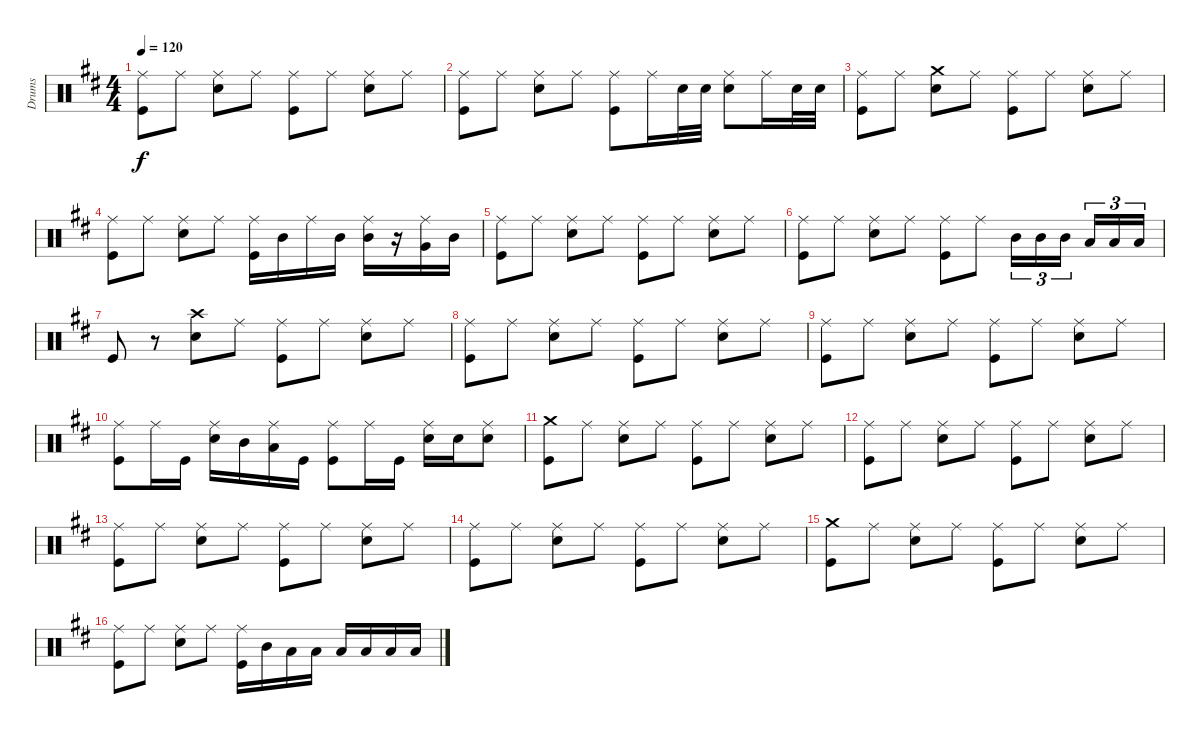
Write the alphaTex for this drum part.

\track ("Drums" "Drums") {instrument percussion}
\staff {score}
\articulation defaults
\ts (4 4)
\tempo 120
\clef neutral
\ks d
("Ride (middle)" "Kick (hit)").8{dy f} "Ride (middle)".8 ("Ride (middle)" "Snare (hit) 2").8 "Ride (middle)".8 ("Ride (middle)" "Kick (hit)").8 "Ride (middle)".8 ("Ride (middle)" "Snare (hit) 2").8 "Ride (middle)".8 |
("Ride (middle)" "Kick (hit)").8 "Ride (middle)".8 ("Ride (middle)" "Snare (hit) 2").8 "Ride (middle)".8 ("Ride (middle)" "Kick (hit)").8 "Ride (middle)".16 "Snare (hit) 2".32 "Snare (hit) 2".32 ("Ride (middle)" "Snare (hit) 2").8 "Ride (middle)".16 "Snare (hit) 2".32 "Snare (hit) 2".32 |
("Ride (middle)" "Kick (hit)").8 "Ride (middle)".8 ("Crash medium (hit)" "Snare (hit) 2").8 "Ride (middle)".8 ("Ride (middle)" "Kick (hit)").8 "Ride (middle)".8 ("Ride (middle)" "Snare (hit) 2").8 "Ride (middle)".8 |
("Ride (middle)" "Kick (hit)").8 "Ride (middle)".8 ("Ride (middle)" "Snare (hit) 2").8 "Ride (middle)".8 ("Ride (middle)" "Kick (hit)").16 "Mid Tom (hit)".16 "Ride (middle)".16 "Mid Tom (hit)".16 ("Ride (middle)" "Mid Tom (hit)").16 r.16 ("Ride (middle)" "Very Low Tom (hit)").16 "Mid Tom (hit)".16 |
("Ride (middle)" "Kick (hit)").8 "Ride (middle)".8 ("Ride (middle)" "Snare (hit) 2").8 "Ride (middle)".8 ("Ride (middle)" "Kick (hit)").8 "Ride (middle)".8 ("Ride (middle)" "Snare (hit) 2").8 "Ride (middle)".8 |
("Ride (middle)" "Kick (hit)").8 "Ride (middle)".8 ("Ride (middle)" "Snare (hit) 2").8 "Ride (middle)".8 ("Ride (middle)" "Kick (hit)").8 "Ride (middle)".8 "Mid Tom (hit)".16{tu (3 2)} "Mid Tom (hit)".16{tu (3 2)} "Mid Tom (hit)".16{tu (3 2) beam splitsecondary} "Low Tom (hit)".16{tu (3 2)} "Low Tom (hit)".16{tu (3 2)} "Low Tom (hit)".16{tu (3 2)} |
"Kick (hit)".8 r.8 ("Crash high (hit)" "Snare (hit) 2").8 "Ride (middle)".8 ("Ride (middle)" "Kick (hit)").8 "Ride (middle)".8 ("Ride (middle)" "Snare (hit) 2").8 "Ride (middle)".8 |
("Ride (middle)" "Kick (hit)").8 "Ride (middle)".8 ("Ride (middle)" "Snare (hit) 2").8 "Ride (middle)".8 ("Ride (middle)" "Kick (hit)").8 "Ride (middle)".8 ("Ride (middle)" "Snare (hit) 2").8 "Ride (middle)".8 |
("Ride (middle)" "Kick (hit)").8 "Ride (middle)".8 ("Ride (middle)" "Snare (hit) 2").8 "Ride (middle)".8 ("Ride (middle)" "Kick (hit)").8 "Ride (middle)".8 ("Ride (middle)" "Snare (hit) 2").8 "Ride (middle)".8 |
("Ride (middle)" "Kick (hit)").8 "Ride (middle)".16 "Kick (hit)".16 ("Ride (middle)" "Snare (hit) 2").16 "Mid Tom (hit)".16 ("Ride (middle)" "Low Tom (hit)").16 "Kick (hit)".16 ("Ride (middle)" "Kick (hit)").8 "Ride (middle)".16 "Kick (hit)".16 ("Ride (middle)" "Snare (hit) 2").16 "Snare (hit) 2".16 ("Ride (middle)" "Snare (hit) 2").8 |
("Crash medium (hit)" "Kick (hit)").8 "Ride (middle)".8 ("Ride (middle)" "Snare (hit) 2").8 "Ride (middle)".8 ("Ride (middle)" "Kick (hit)").8 "Ride (middle)".8 ("Ride (middle)" "Snare (hit) 2").8 "Ride (middle)".8 |
("Ride (middle)" "Kick (hit)").8 "Ride (middle)".8 ("Ride (middle)" "Snare (hit) 2").8 "Ride (middle)".8 ("Ride (middle)" "Kick (hit)").8 "Ride (middle)".8 ("Ride (middle)" "Snare (hit) 2").8 "Ride (middle)".8 |
("Ride (middle)" "Kick (hit)").8 "Ride (middle)".8 ("Ride (middle)" "Snare (hit) 2").8 "Ride (middle)".8 ("Ride (middle)" "Kick (hit)").8 "Ride (middle)".8 ("Ride (middle)" "Snare (hit) 2").8 "Ride (middle)".8 |
("Ride (middle)" "Kick (hit)").8 "Ride (middle)".8 ("Ride (middle)" "Snare (hit) 2").8 "Ride (middle)".8 ("Ride (middle)" "Kick (hit)").8 "Ride (middle)".8 ("Ride (middle)" "Snare (hit) 2").8 "Ride (middle)".8 |
("Crash medium (hit)" "Kick (hit)").8 "Ride (middle)".8 ("Ride (middle)" "Snare (hit) 2").8 "Ride (middle)".8 ("Ride (middle)" "Kick (hit)").8 "Ride (middle)".8 ("Ride (middle)" "Snare (hit) 2").8 "Ride (middle)".8 |
("Ride (middle)" "Kick (hit)").8 "Ride (middle)".8 ("Ride (middle)" "Snare (hit) 2").8 "Ride (middle)".8 ("Ride (middle)" "Kick (hit)").16 "Mid Tom (hit)".16 "Low Tom (hit)".16 "Low Tom (hit)".16 "Low Tom (hit)".16 "Low Tom (hit)".16 "Low Tom (hit)".16 "Low Tom (hit)".16
